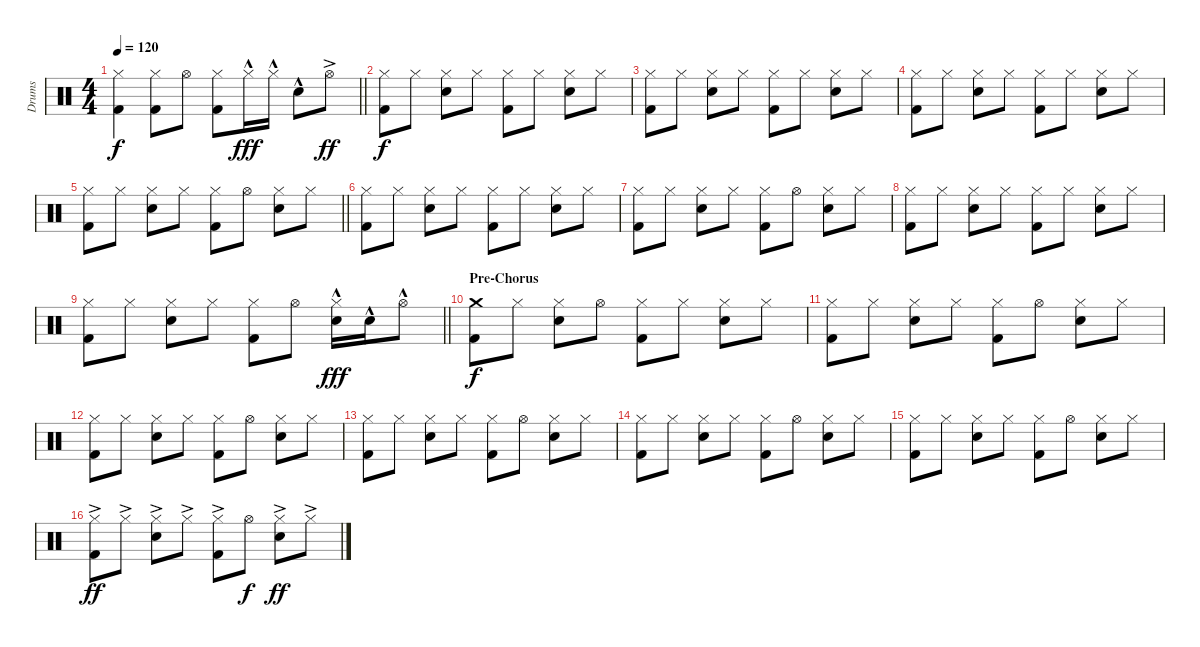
\track ("Drums" "Drums") {instrument percussion}
\staff {score}
\articulation defaults
\ts (4 4)
\tempo 120
\clef neutral
\barLineRight lightlight
\ks c
("Kick (hit) 2" "Hi-Hat (closed)").4{dy f} ("Kick (hit) 2" "Hi-Hat (closed)").8 "Hi-Hat (open)".8 ("Kick (hit) 2" "Hi-Hat (closed)").8 "Hi-Hat (closed)"{hac}.16{dy fff} "Hi-Hat (closed)"{hac}.16 "Electric Snare (hit)"{hac}.8 "Hi-Hat (open)"{ac}.8{dy ff} |
("Hi-Hat (closed)" "Kick (hit) 2").8{dy f} "Hi-Hat (closed)".8 ("Hi-Hat (closed)" "Electric Snare (hit)").8 "Hi-Hat (closed)".8 ("Hi-Hat (closed)" "Kick (hit) 2").8 "Hi-Hat (closed)".8 ("Hi-Hat (closed)" "Electric Snare (hit)").8 "Hi-Hat (closed)".8 |
("Hi-Hat (closed)" "Kick (hit) 2").8 "Hi-Hat (closed)".8 ("Hi-Hat (closed)" "Electric Snare (hit)").8 "Hi-Hat (closed)".8 ("Hi-Hat (closed)" "Kick (hit) 2").8 "Hi-Hat (closed)".8 ("Hi-Hat (closed)" "Electric Snare (hit)").8 "Hi-Hat (closed)".8 |
("Hi-Hat (closed)" "Kick (hit) 2").8 "Hi-Hat (closed)".8 ("Hi-Hat (closed)" "Electric Snare (hit)").8 "Hi-Hat (closed)".8 ("Hi-Hat (closed)" "Kick (hit) 2").8 "Hi-Hat (closed)".8 ("Hi-Hat (closed)" "Electric Snare (hit)").8 "Hi-Hat (closed)".8 |
\barLineRight lightlight
("Hi-Hat (closed)" "Kick (hit) 2").8 "Hi-Hat (closed)".8 ("Hi-Hat (closed)" "Electric Snare (hit)").8 "Hi-Hat (closed)".8 ("Hi-Hat (closed)" "Kick (hit) 2").8 "Hi-Hat (open)".8 ("Hi-Hat (closed)" "Electric Snare (hit)").8 "Hi-Hat (closed)".8 |
("Hi-Hat (closed)" "Kick (hit) 2").8 "Hi-Hat (closed)".8 ("Hi-Hat (closed)" "Electric Snare (hit)").8 "Hi-Hat (closed)".8 ("Hi-Hat (closed)" "Kick (hit) 2").8 "Hi-Hat (closed)".8 ("Hi-Hat (closed)" "Electric Snare (hit)").8 "Hi-Hat (closed)".8 |
("Hi-Hat (closed)" "Kick (hit) 2").8 "Hi-Hat (closed)".8 ("Hi-Hat (closed)" "Electric Snare (hit)").8 "Hi-Hat (closed)".8 ("Hi-Hat (closed)" "Kick (hit) 2").8 "Hi-Hat (open)".8 ("Hi-Hat (closed)" "Electric Snare (hit)").8 "Hi-Hat (closed)".8 |
("Hi-Hat (closed)" "Kick (hit) 2").8 "Hi-Hat (closed)".8 ("Hi-Hat (closed)" "Electric Snare (hit)").8 "Hi-Hat (closed)".8 ("Hi-Hat (closed)" "Kick (hit) 2").8 "Hi-Hat (closed)".8 ("Hi-Hat (closed)" "Electric Snare (hit)").8 "Hi-Hat (closed)".8 |
\barLineRight lightlight
("Hi-Hat (closed)" "Kick (hit) 2").8 "Hi-Hat (closed)".8 ("Hi-Hat (closed)" "Electric Snare (hit)").8 "Hi-Hat (closed)".8 ("Hi-Hat (closed)" "Kick (hit) 2").8 "Hi-Hat (open)".8 ("Hi-Hat (closed)" "Electric Snare (hit)"{hac}).16{dy fff} "Electric Snare (hit)"{hac}.16 "Hi-Hat (open)"{hac}.8 |
\section ("" "Pre-Chorus")
("Kick (hit) 2" "Crash medium (hit)").8{dy f} "Hi-Hat (closed)".8 ("Hi-Hat (closed)" "Electric Snare (hit)").8 "Hi-Hat (open)".8 ("Hi-Hat (closed)" "Kick (hit) 2").8 "Hi-Hat (closed)".8 ("Hi-Hat (closed)" "Electric Snare (hit)").8 "Hi-Hat (closed)".8 |
("Hi-Hat (closed)" "Kick (hit) 2").8 "Hi-Hat (closed)".8 ("Hi-Hat (closed)" "Electric Snare (hit)").8 "Hi-Hat (closed)".8 ("Hi-Hat (closed)" "Kick (hit) 2").8 "Hi-Hat (open)".8 ("Hi-Hat (closed)" "Electric Snare (hit)").8 "Hi-Hat (closed)".8 |
("Hi-Hat (closed)" "Kick (hit) 2").8 "Hi-Hat (closed)".8 ("Hi-Hat (closed)" "Electric Snare (hit)").8 "Hi-Hat (closed)".8 ("Hi-Hat (closed)" "Kick (hit) 2").8 "Hi-Hat (open)".8 ("Hi-Hat (closed)" "Electric Snare (hit)").8 "Hi-Hat (closed)".8 |
("Hi-Hat (closed)" "Kick (hit) 2").8 "Hi-Hat (closed)".8 ("Hi-Hat (closed)" "Electric Snare (hit)").8 "Hi-Hat (closed)".8 ("Hi-Hat (closed)" "Kick (hit) 2").8 "Hi-Hat (open)".8 ("Hi-Hat (closed)" "Electric Snare (hit)").8 "Hi-Hat (closed)".8 |
("Hi-Hat (closed)" "Kick (hit) 2").8 "Hi-Hat (closed)".8 ("Hi-Hat (closed)" "Electric Snare (hit)").8 "Hi-Hat (closed)".8 ("Hi-Hat (closed)" "Kick (hit) 2").8 "Hi-Hat (open)".8 ("Hi-Hat (closed)" "Electric Snare (hit)").8 "Hi-Hat (closed)".8 |
("Hi-Hat (closed)" "Kick (hit) 2").8 "Hi-Hat (closed)".8 ("Hi-Hat (closed)" "Electric Snare (hit)").8 "Hi-Hat (closed)".8 ("Hi-Hat (closed)" "Kick (hit) 2").8 "Hi-Hat (open)".8 ("Hi-Hat (closed)" "Electric Snare (hit)").8 "Hi-Hat (closed)".8 |
("Hi-Hat (closed)"{ac} "Kick (hit) 2").8{dy ff} "Hi-Hat (closed)"{ac}.8 ("Hi-Hat (closed)"{ac} "Electric Snare (hit)").8 "Hi-Hat (closed)"{ac}.8 ("Hi-Hat (closed)"{ac} "Kick (hit) 2").8 "Hi-Hat (open)".8{dy f} ("Hi-Hat (closed)"{ac} "Electric Snare (hit)").8{dy ff} "Hi-Hat (closed)"{ac}.8
